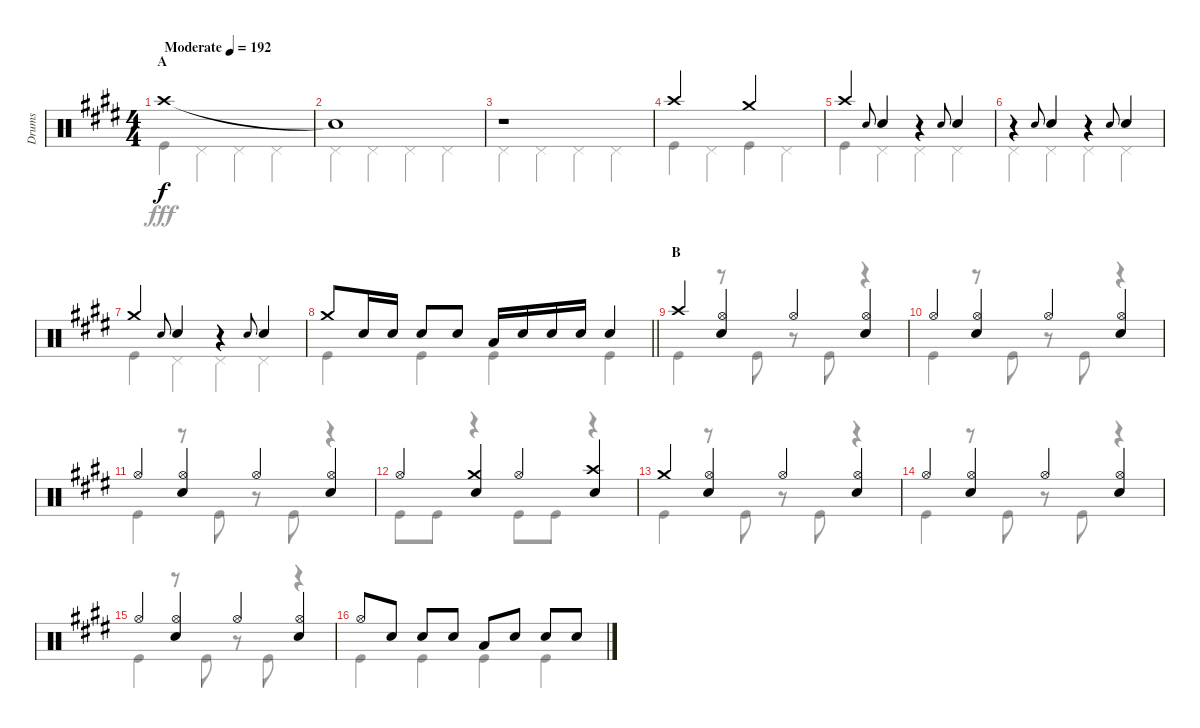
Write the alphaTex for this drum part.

\track ("Drums" "Drums") {instrument percussion}
\staff {score}
\articulation defaults
\voice
\ts (4 4)
\section ("" "A")
\tempo (192 "Moderate")
\clef neutral
\ks e "Crash high (hit)".1{dy f}
|
"Snare (hit)"{t}.1 |
r.1 |
"Crash high (hit)".2 "Crash medium (hit)".2 |
"Crash high (hit)".4 "Snare (hit) 2".8{gr onbeat} "Snare (hit) 2".4 r.4 "Snare (hit) 2".8{gr onbeat} "Snare (hit) 2".4 |
r.4 "Snare (hit) 2".8{gr onbeat} "Snare (hit) 2".4 r.4 "Snare (hit) 2".8{gr onbeat} "Snare (hit) 2".4 |
"Crash medium (hit)".4 "Snare (hit) 2".8{gr onbeat} "Snare (hit) 2".4 r.4 "Snare (hit) 2".8{gr onbeat} "Snare (hit) 2".4 |
\barLineRight lightlight "Crash medium (hit)".8 "Snare (hit) 2".16 "Snare (hit) 2".16 "Snare (hit) 2".8 "Snare (hit) 2".8 "Low Tom (hit)".16 "Snare (hit) 2".16 "Snare (hit) 2".16 "Snare (hit) 2".16 "Snare (hit) 2".4
|
\section ("" "B")
"Crash high (hit)".4 ("Hi-Hat (open)" "Snare (hit) 2").4 "Hi-Hat (open)".4 ("Hi-Hat (open)" "Snare (hit) 2").4 |
"Hi-Hat (open)".4 ("Hi-Hat (open)" "Snare (hit) 2").4 "Hi-Hat (open)".4 ("Hi-Hat (open)" "Snare (hit) 2").4 |
"Hi-Hat (open)".4 ("Hi-Hat (open)" "Snare (hit) 2").4 "Hi-Hat (open)".4 ("Hi-Hat (open)" "Snare (hit) 2").4 |
"Hi-Hat (open)".4 ("Crash medium (hit)" "Snare (hit) 2").4 "Hi-Hat (open)".4 ("Crash high (hit)" "Snare (hit) 2").4 |
"Crash medium (hit)".4 ("Hi-Hat (open)" "Snare (hit) 2").4 "Hi-Hat (open)".4 ("Hi-Hat (open)" "Snare (hit) 2").4 |
"Hi-Hat (open)".4 ("Hi-Hat (open)" "Snare (hit) 2").4 "Hi-Hat (open)".4 ("Hi-Hat (open)" "Snare (hit) 2").4 |
"Hi-Hat (open)".4 ("Hi-Hat (open)" "Snare (hit) 2").4 "Hi-Hat (open)".4 ("Hi-Hat (open)" "Snare (hit) 2").4 |
"Hi-Hat (open)".8 "Snare (hit) 2".8 "Snare (hit) 2".8 "Snare (hit) 2".8 "Low Tom (hit)".8 "Snare (hit) 2".8 "Snare (hit) 2".8 "Snare (hit) 2".8
\voice
\clef neutral
\ottava regular
\simile none
\ks e "Kick (hit)".4{dy fff} "Pedal Hi-Hat (hit)".4 "Pedal Hi-Hat (hit)".4 "Pedal Hi-Hat (hit)".4
|
"Pedal Hi-Hat (hit)".4 "Pedal Hi-Hat (hit)".4 "Pedal Hi-Hat (hit)".4 "Pedal Hi-Hat (hit)".4 |
"Pedal Hi-Hat (hit)".4 "Pedal Hi-Hat (hit)".4 "Pedal Hi-Hat (hit)".4 "Pedal Hi-Hat (hit)".4 |
"Kick (hit)".4 "Pedal Hi-Hat (hit)".4 "Kick (hit)".4 "Pedal Hi-Hat (hit)".4 |
"Kick (hit)".4 "Pedal Hi-Hat (hit)".4 "Pedal Hi-Hat (hit)".4 "Pedal Hi-Hat (hit)".4 |
"Pedal Hi-Hat (hit)".4 "Pedal Hi-Hat (hit)".4 "Pedal Hi-Hat (hit)".4 "Pedal Hi-Hat (hit)".4 |
"Kick (hit)".4 "Pedal Hi-Hat (hit)".4 "Pedal Hi-Hat (hit)".4 "Pedal Hi-Hat (hit)".4 |
\barLineRight lightlight "Kick (hit)".4 "Kick (hit)".4 "Kick (hit)".4 "Kick (hit)".4
|
"Kick (hit)".4 r.8 "Kick (hit)".8 r.8 "Kick (hit)".8 r.4 |
"Kick (hit)".4 r.8 "Kick (hit)".8 r.8 "Kick (hit)".8 r.4 |
"Kick (hit)".4 r.8 "Kick (hit)".8 r.8 "Kick (hit)".8 r.4 |
"Kick (hit)".8 "Kick (hit)".8 r.4 "Kick (hit)".8 "Kick (hit)".8 r.4 |
"Kick (hit)".4 r.8 "Kick (hit)".8 r.8 "Kick (hit)".8 r.4 |
"Kick (hit)".4 r.8 "Kick (hit)".8 r.8 "Kick (hit)".8 r.4 |
"Kick (hit)".4 r.8 "Kick (hit)".8 r.8 "Kick (hit)".8 r.4 |
"Kick (hit)".4 "Kick (hit)".4 "Kick (hit)".4 "Kick (hit)".4
